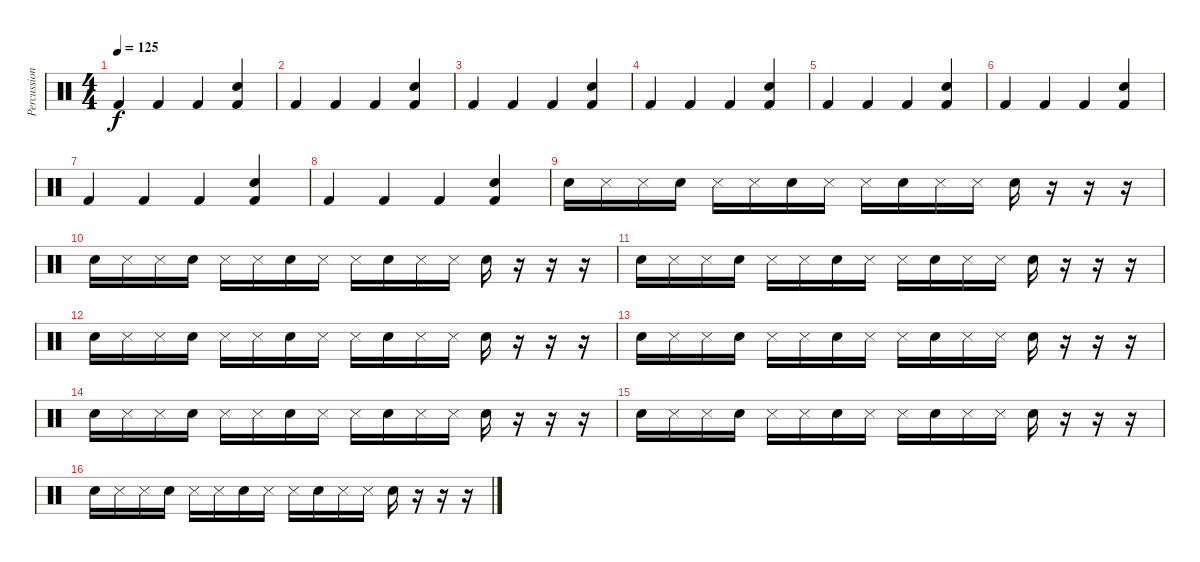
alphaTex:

\track ("Percussion" "Percussion") {instrument percussion}
\staff {score}
\articulation defaults
\ts (4 4)
\tempo 125
\clef neutral
\ks c "Kick (hit) 2".4{dy f} "Kick (hit) 2".4 "Kick (hit) 2".4
("Kick (hit) 2" "Electric Snare (hit)").4 |
"Kick (hit) 2".4 "Kick (hit) 2".4 "Kick (hit) 2".4 ("Kick (hit) 2" "Electric Snare (hit)").4 |
"Kick (hit) 2".4 "Kick (hit) 2".4 "Kick (hit) 2".4 ("Kick (hit) 2" "Electric Snare (hit)").4 |
"Kick (hit) 2".4 "Kick (hit) 2".4 "Kick (hit) 2".4 ("Kick (hit) 2" "Electric Snare (hit)").4 |
"Kick (hit) 2".4 "Kick (hit) 2".4 "Kick (hit) 2".4 ("Kick (hit) 2" "Electric Snare (hit)").4 |
"Kick (hit) 2".4 "Kick (hit) 2".4 "Kick (hit) 2".4 ("Kick (hit) 2" "Electric Snare (hit)").4 |
"Kick (hit) 2".4 "Kick (hit) 2".4 "Kick (hit) 2".4 ("Kick (hit) 2" "Electric Snare (hit)").4 |
"Kick (hit) 2".4 "Kick (hit) 2".4 "Kick (hit) 2".4 ("Kick (hit) 2" "Electric Snare (hit)").4 |
"Snare (hit) 2".16 "Snare (side stick) 3".16 "Snare (side stick) 3".16 "Snare (hit) 2".16 "Snare (side stick) 3".16 "Snare (side stick) 3".16 "Snare (hit) 2".16 "Snare (side stick) 3".16 "Snare (side stick) 3".16 "Snare (hit) 2".16 "Snare (side stick) 3".16 "Snare (side stick) 3".16 "Snare (hit) 2".16 r.16 r.16 r.16 |
"Snare (hit) 2".16 "Snare (side stick) 3".16 "Snare (side stick) 3".16 "Snare (hit) 2".16 "Snare (side stick) 3".16 "Snare (side stick) 3".16 "Snare (hit) 2".16 "Snare (side stick) 3".16 "Snare (side stick) 3".16 "Snare (hit) 2".16 "Snare (side stick) 3".16 "Snare (side stick) 3".16 "Snare (hit) 2".16 r.16 r.16 r.16 |
"Snare (hit) 2".16 "Snare (side stick) 3".16 "Snare (side stick) 3".16 "Snare (hit) 2".16 "Snare (side stick) 3".16 "Snare (side stick) 3".16 "Snare (hit) 2".16 "Snare (side stick) 3".16 "Snare (side stick) 3".16 "Snare (hit) 2".16 "Snare (side stick) 3".16 "Snare (side stick) 3".16 "Snare (hit) 2".16 r.16 r.16 r.16 |
"Snare (hit) 2".16 "Snare (side stick) 3".16 "Snare (side stick) 3".16 "Snare (hit) 2".16 "Snare (side stick) 3".16 "Snare (side stick) 3".16 "Snare (hit) 2".16 "Snare (side stick) 3".16 "Snare (side stick) 3".16 "Snare (hit) 2".16 "Snare (side stick) 3".16 "Snare (side stick) 3".16 "Snare (hit) 2".16 r.16 r.16 r.16 |
"Snare (hit) 2".16 "Snare (side stick) 3".16 "Snare (side stick) 3".16 "Snare (hit) 2".16 "Snare (side stick) 3".16 "Snare (side stick) 3".16 "Snare (hit) 2".16 "Snare (side stick) 3".16 "Snare (side stick) 3".16 "Snare (hit) 2".16 "Snare (side stick) 3".16 "Snare (side stick) 3".16 "Snare (hit) 2".16 r.16 r.16 r.16 |
"Snare (hit) 2".16 "Snare (side stick) 3".16 "Snare (side stick) 3".16 "Snare (hit) 2".16 "Snare (side stick) 3".16 "Snare (side stick) 3".16 "Snare (hit) 2".16 "Snare (side stick) 3".16 "Snare (side stick) 3".16 "Snare (hit) 2".16 "Snare (side stick) 3".16 "Snare (side stick) 3".16 "Snare (hit) 2".16 r.16 r.16 r.16 |
"Snare (hit) 2".16 "Snare (side stick) 3".16 "Snare (side stick) 3".16 "Snare (hit) 2".16 "Snare (side stick) 3".16 "Snare (side stick) 3".16 "Snare (hit) 2".16 "Snare (side stick) 3".16 "Snare (side stick) 3".16 "Snare (hit) 2".16 "Snare (side stick) 3".16 "Snare (side stick) 3".16 "Snare (hit) 2".16 r.16 r.16 r.16 |
"Snare (hit) 2".16 "Snare (side stick) 3".16 "Snare (side stick) 3".16 "Snare (hit) 2".16 "Snare (side stick) 3".16 "Snare (side stick) 3".16 "Snare (hit) 2".16 "Snare (side stick) 3".16 "Snare (side stick) 3".16 "Snare (hit) 2".16 "Snare (side stick) 3".16 "Snare (side stick) 3".16 "Snare (hit) 2".16 r.16 r.16 r.16
